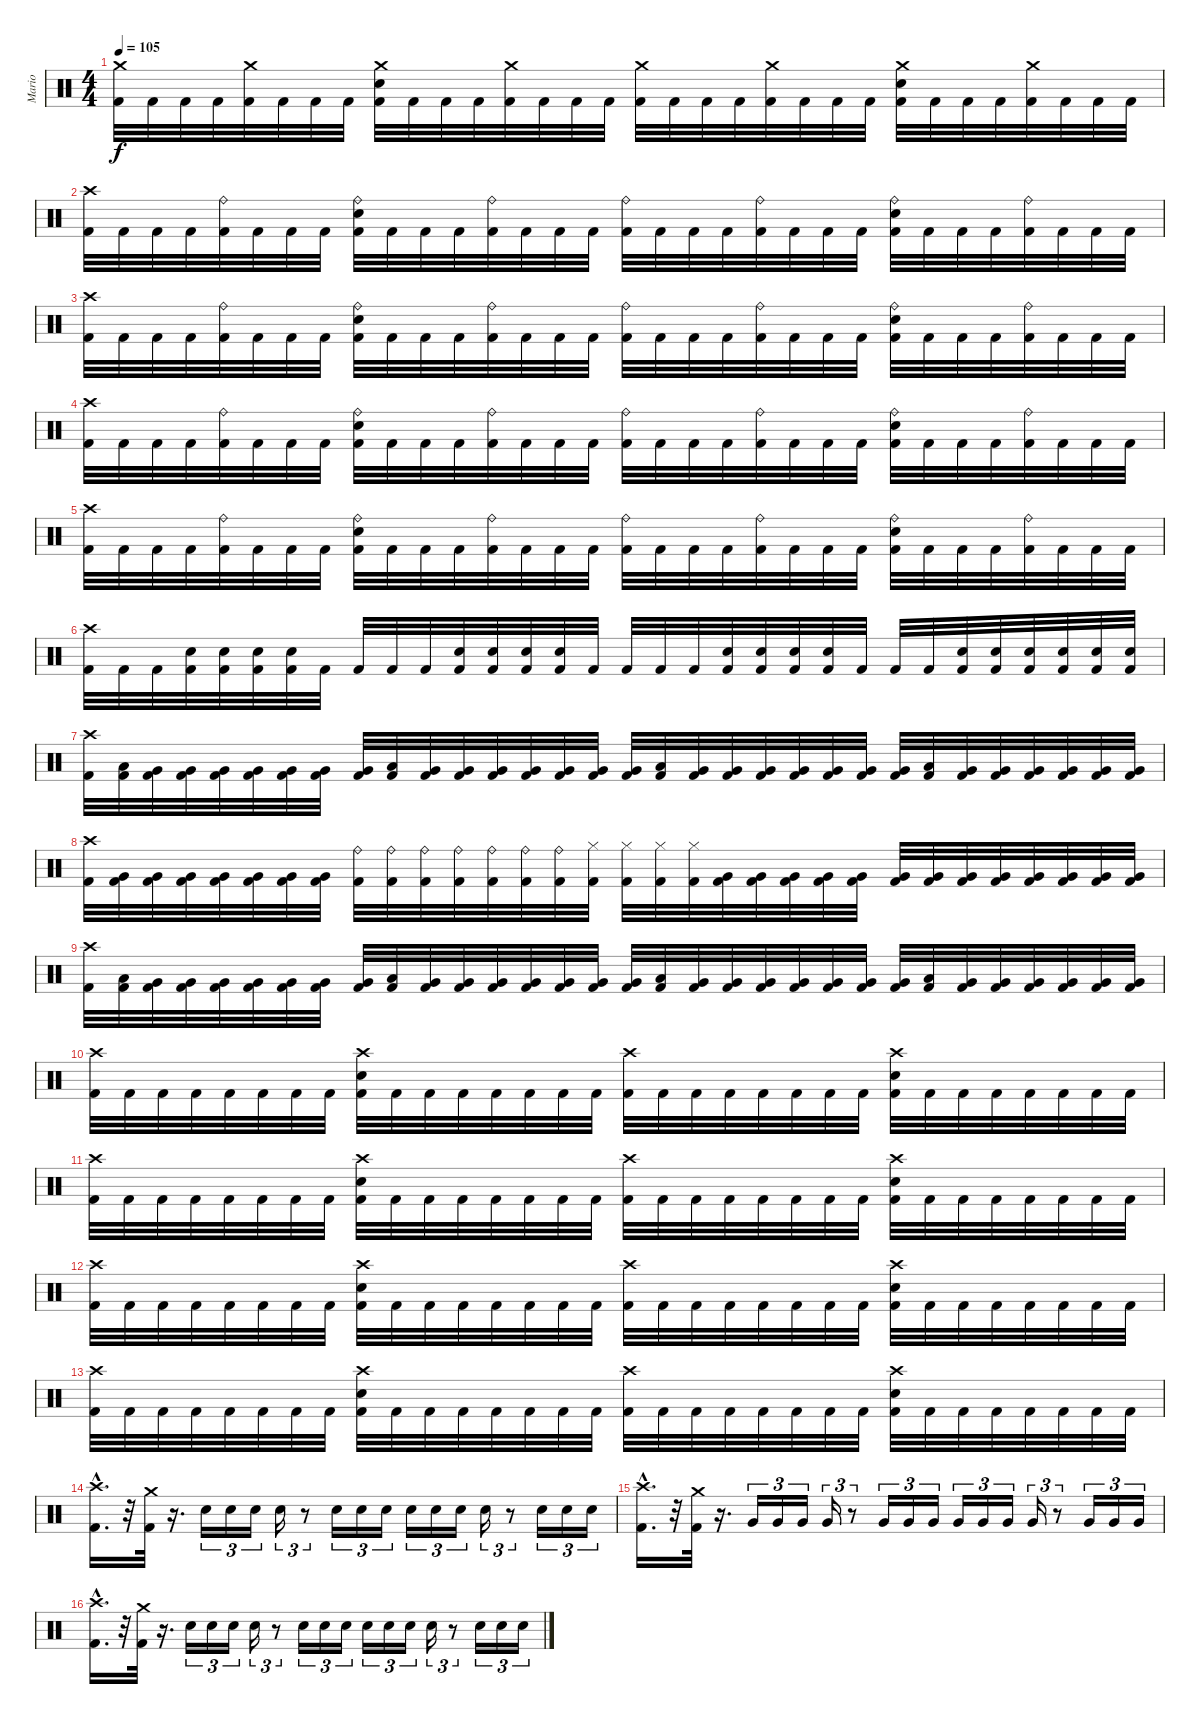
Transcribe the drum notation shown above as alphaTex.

\track ("Mario" "Mario") {instrument percussion}
\staff {score}
\articulation defaults
\ts (4 4)
\tempo 105
\clef neutral
\ks c
("Crash medium (hit)" "Kick (hit) 2").32{dy f} "Kick (hit) 2".32 "Kick (hit) 2".32 "Kick (hit) 2".32 ("Crash medium (hit)" "Kick (hit) 2").32 "Kick (hit) 2".32 "Kick (hit) 2".32 "Kick (hit) 2".32 ("Crash medium (hit)" "Snare (hit) 2" "Kick (hit) 2").32 "Kick (hit) 2".32 "Kick (hit) 2".32 "Kick (hit) 2".32 ("Crash medium (hit)" "Kick (hit) 2").32 "Kick (hit) 2".32 "Kick (hit) 2".32 "Kick (hit) 2".32 ("Crash medium (hit)" "Kick (hit) 2").32 "Kick (hit) 2".32 "Kick (hit) 2".32 "Kick (hit) 2".32 ("Crash medium (hit)" "Kick (hit) 2").32 "Kick (hit) 2".32 "Kick (hit) 2".32 "Kick (hit) 2".32 ("Crash medium (hit)" "Snare (hit) 2" "Kick (hit) 2").32 "Kick (hit) 2".32 "Kick (hit) 2".32 "Kick (hit) 2".32 ("Crash medium (hit)" "Kick (hit) 2").32 "Kick (hit) 2".32 "Kick (hit) 2".32 "Kick (hit) 2".32 |
("Crash high (hit)" "Kick (hit) 2").32 "Kick (hit) 2".32 "Kick (hit) 2".32 "Kick (hit) 2".32 ("Ride (bell)" "Kick (hit) 2").32 "Kick (hit) 2".32 "Kick (hit) 2".32 "Kick (hit) 2".32 ("Ride (bell)" "Snare (hit) 2" "Kick (hit) 2").32 "Kick (hit) 2".32 "Kick (hit) 2".32 "Kick (hit) 2".32 ("Ride (bell)" "Kick (hit) 2").32 "Kick (hit) 2".32 "Kick (hit) 2".32 "Kick (hit) 2".32 ("Ride (bell)" "Kick (hit) 2").32 "Kick (hit) 2".32 "Kick (hit) 2".32 "Kick (hit) 2".32 ("Ride (bell)" "Kick (hit) 2").32 "Kick (hit) 2".32 "Kick (hit) 2".32 "Kick (hit) 2".32 ("Ride (bell)" "Snare (hit) 2" "Kick (hit) 2").32 "Kick (hit) 2".32 "Kick (hit) 2".32 "Kick (hit) 2".32 ("Ride (bell)" "Kick (hit) 2").32 "Kick (hit) 2".32 "Kick (hit) 2".32 "Kick (hit) 2".32 |
("Crash high (hit)" "Kick (hit) 2").32 "Kick (hit) 2".32 "Kick (hit) 2".32 "Kick (hit) 2".32 ("Ride (bell)" "Kick (hit) 2").32 "Kick (hit) 2".32 "Kick (hit) 2".32 "Kick (hit) 2".32 ("Ride (bell)" "Snare (hit) 2" "Kick (hit) 2").32 "Kick (hit) 2".32 "Kick (hit) 2".32 "Kick (hit) 2".32 ("Ride (bell)" "Kick (hit) 2").32 "Kick (hit) 2".32 "Kick (hit) 2".32 "Kick (hit) 2".32 ("Ride (bell)" "Kick (hit) 2").32 "Kick (hit) 2".32 "Kick (hit) 2".32 "Kick (hit) 2".32 ("Ride (bell)" "Kick (hit) 2").32 "Kick (hit) 2".32 "Kick (hit) 2".32 "Kick (hit) 2".32 ("Ride (bell)" "Snare (hit) 2" "Kick (hit) 2").32 "Kick (hit) 2".32 "Kick (hit) 2".32 "Kick (hit) 2".32 ("Ride (bell)" "Kick (hit) 2").32 "Kick (hit) 2".32 "Kick (hit) 2".32 "Kick (hit) 2".32 |
("Crash high (hit)" "Kick (hit) 2").32 "Kick (hit) 2".32 "Kick (hit) 2".32 "Kick (hit) 2".32 ("Ride (bell)" "Kick (hit) 2").32 "Kick (hit) 2".32 "Kick (hit) 2".32 "Kick (hit) 2".32 ("Ride (bell)" "Snare (hit) 2" "Kick (hit) 2").32 "Kick (hit) 2".32 "Kick (hit) 2".32 "Kick (hit) 2".32 ("Ride (bell)" "Kick (hit) 2").32 "Kick (hit) 2".32 "Kick (hit) 2".32 "Kick (hit) 2".32 ("Ride (bell)" "Kick (hit) 2").32 "Kick (hit) 2".32 "Kick (hit) 2".32 "Kick (hit) 2".32 ("Ride (bell)" "Kick (hit) 2").32 "Kick (hit) 2".32 "Kick (hit) 2".32 "Kick (hit) 2".32 ("Ride (bell)" "Snare (hit) 2" "Kick (hit) 2").32 "Kick (hit) 2".32 "Kick (hit) 2".32 "Kick (hit) 2".32 ("Ride (bell)" "Kick (hit) 2").32 "Kick (hit) 2".32 "Kick (hit) 2".32 "Kick (hit) 2".32 |
("Crash high (hit)" "Kick (hit) 2").32 "Kick (hit) 2".32 "Kick (hit) 2".32 "Kick (hit) 2".32 ("Ride (bell)" "Kick (hit) 2").32 "Kick (hit) 2".32 "Kick (hit) 2".32 "Kick (hit) 2".32 ("Ride (bell)" "Snare (hit) 2" "Kick (hit) 2").32 "Kick (hit) 2".32 "Kick (hit) 2".32 "Kick (hit) 2".32 ("Ride (bell)" "Kick (hit) 2").32 "Kick (hit) 2".32 "Kick (hit) 2".32 "Kick (hit) 2".32 ("Ride (bell)" "Kick (hit) 2").32 "Kick (hit) 2".32 "Kick (hit) 2".32 "Kick (hit) 2".32 ("Ride (bell)" "Kick (hit) 2").32 "Kick (hit) 2".32 "Kick (hit) 2".32 "Kick (hit) 2".32 ("Ride (bell)" "Snare (hit) 2" "Kick (hit) 2").32 "Kick (hit) 2".32 "Kick (hit) 2".32 "Kick (hit) 2".32 ("Ride (bell)" "Kick (hit) 2").32 "Kick (hit) 2".32 "Kick (hit) 2".32 "Kick (hit) 2".32 |
("Crash high (hit)" "Kick (hit) 2").32 "Kick (hit) 2".32 "Kick (hit) 2".32 ("Snare (hit) 2" "Kick (hit) 2").32 ("Snare (hit) 2" "Kick (hit) 2").32 ("Snare (hit) 2" "Kick (hit) 2").32 ("Snare (hit) 2" "Kick (hit) 2").32 "Kick (hit) 2".32 "Kick (hit) 2".32 "Kick (hit) 2".32 "Kick (hit) 2".32 ("Snare (hit) 2" "Kick (hit) 2").32 ("Snare (hit) 2" "Kick (hit) 2").32 ("Snare (hit) 2" "Kick (hit) 2").32 ("Snare (hit) 2" "Kick (hit) 2").32 "Kick (hit) 2".32 "Kick (hit) 2".32 "Kick (hit) 2".32 "Kick (hit) 2".32 ("Snare (hit) 2" "Kick (hit) 2").32 ("Snare (hit) 2" "Kick (hit) 2").32 ("Snare (hit) 2" "Kick (hit) 2").32 ("Snare (hit) 2" "Kick (hit) 2").32 "Kick (hit) 2".32 "Kick (hit) 2".32 "Kick (hit) 2".32 ("Snare (hit) 2" "Kick (hit) 2").32 ("Snare (hit) 2" "Kick (hit) 2").32 ("Snare (hit) 2" "Kick (hit) 2").32 ("Snare (hit) 2" "Kick (hit) 2").32 ("Snare (hit) 2" "Kick (hit) 2").32 ("Snare (hit) 2" "Kick (hit) 2").32 |
("Crash high (hit)" "Kick (hit) 2").32 ("Low Tom (hit)" "Kick (hit) 2").32 ("Very Low Tom (hit)" "Kick (hit) 2").32 ("Very Low Tom (hit)" "Kick (hit) 2").32 ("Very Low Tom (hit)" "Kick (hit) 2").32 ("Very Low Tom (hit)" "Kick (hit) 2").32 ("Very Low Tom (hit)" "Kick (hit) 2").32 ("Very Low Tom (hit)" "Kick (hit) 2").32 ("Very Low Tom (hit)" "Kick (hit) 2").32 ("Low Tom (hit)" "Kick (hit) 2").32 ("Very Low Tom (hit)" "Kick (hit) 2").32 ("Very Low Tom (hit)" "Kick (hit) 2").32 ("Very Low Tom (hit)" "Kick (hit) 2").32 ("Very Low Tom (hit)" "Kick (hit) 2").32 ("Very Low Tom (hit)" "Kick (hit) 2").32 ("Very Low Tom (hit)" "Kick (hit) 2").32 ("Very Low Tom (hit)" "Kick (hit) 2").32 ("Low Tom (hit)" "Kick (hit) 2").32 ("Very Low Tom (hit)" "Kick (hit) 2").32 ("Very Low Tom (hit)" "Kick (hit) 2").32 ("Very Low Tom (hit)" "Kick (hit) 2").32 ("Very Low Tom (hit)" "Kick (hit) 2").32 ("Very Low Tom (hit)" "Kick (hit) 2").32 ("Very Low Tom (hit)" "Kick (hit) 2").32 ("Very Low Tom (hit)" "Kick (hit) 2").32 ("Low Tom (hit)" "Kick (hit) 2").32 ("Very Low Tom (hit)" "Kick (hit) 2").32 ("Very Low Tom (hit)" "Kick (hit) 2").32 ("Very Low Tom (hit)" "Kick (hit) 2").32 ("Very Low Tom (hit)" "Kick (hit) 2").32 ("Very Low Tom (hit)" "Kick (hit) 2").32 ("Very Low Tom (hit)" "Kick (hit) 2").32 |
("Crash high (hit)" "Kick (hit) 2").32 ("Very Low Tom (hit)" "Kick (hit) 2").32 ("Very Low Tom (hit)" "Kick (hit) 2").32 ("Very Low Tom (hit)" "Kick (hit) 2").32 ("Very Low Tom (hit)" "Kick (hit) 2").32 ("Very Low Tom (hit)" "Kick (hit) 2").32 ("Very Low Tom (hit)" "Kick (hit) 2").32 ("Very Low Tom (hit)" "Kick (hit) 2").32 ("Ride (bell)" "Kick (hit) 2").32 ("Ride (bell)" "Kick (hit) 2").32 ("Ride (bell)" "Kick (hit) 2").32 ("Ride (bell)" "Kick (hit) 2").32 ("Ride (bell)" "Kick (hit) 2").32 ("Ride (bell)" "Kick (hit) 2").32 ("Ride (bell)" "Kick (hit) 2").32 ("Hi-Hat (closed)" "Kick (hit) 2").32 ("Hi-Hat (closed)" "Kick (hit) 2").32 ("Hi-Hat (closed)" "Kick (hit) 2").32 ("Hi-Hat (closed)" "Kick (hit) 2").32 ("Very Low Tom (hit)" "Kick (hit) 2").32 ("Very Low Tom (hit)" "Kick (hit) 2").32 ("Very Low Tom (hit)" "Kick (hit) 2").32 ("Very Low Tom (hit)" "Kick (hit) 2").32 ("Very Low Tom (hit)" "Kick (hit) 2").32 ("Very Low Tom (hit)" "Kick (hit) 2").32 ("Very Low Tom (hit)" "Kick (hit) 2").32 ("Very Low Tom (hit)" "Kick (hit) 2").32 ("Very Low Tom (hit)" "Kick (hit) 2").32 ("Very Low Tom (hit)" "Kick (hit) 2").32 ("Very Low Tom (hit)" "Kick (hit) 2").32 ("Very Low Tom (hit)" "Kick (hit) 2").32 ("Very Low Tom (hit)" "Kick (hit) 2").32 |
("Crash high (hit)" "Kick (hit) 2").32 ("Low Tom (hit)" "Kick (hit) 2").32 ("Very Low Tom (hit)" "Kick (hit) 2").32 ("Very Low Tom (hit)" "Kick (hit) 2").32 ("Very Low Tom (hit)" "Kick (hit) 2").32 ("Very Low Tom (hit)" "Kick (hit) 2").32 ("Very Low Tom (hit)" "Kick (hit) 2").32 ("Very Low Tom (hit)" "Kick (hit) 2").32 ("Very Low Tom (hit)" "Kick (hit) 2").32 ("Low Tom (hit)" "Kick (hit) 2").32 ("Very Low Tom (hit)" "Kick (hit) 2").32 ("Very Low Tom (hit)" "Kick (hit) 2").32 ("Very Low Tom (hit)" "Kick (hit) 2").32 ("Very Low Tom (hit)" "Kick (hit) 2").32 ("Very Low Tom (hit)" "Kick (hit) 2").32 ("Very Low Tom (hit)" "Kick (hit) 2").32 ("Very Low Tom (hit)" "Kick (hit) 2").32 ("Low Tom (hit)" "Kick (hit) 2").32 ("Very Low Tom (hit)" "Kick (hit) 2").32 ("Very Low Tom (hit)" "Kick (hit) 2").32 ("Very Low Tom (hit)" "Kick (hit) 2").32 ("Very Low Tom (hit)" "Kick (hit) 2").32 ("Very Low Tom (hit)" "Kick (hit) 2").32 ("Very Low Tom (hit)" "Kick (hit) 2").32 ("Very Low Tom (hit)" "Kick (hit) 2").32 ("Low Tom (hit)" "Kick (hit) 2").32 ("Very Low Tom (hit)" "Kick (hit) 2").32 ("Very Low Tom (hit)" "Kick (hit) 2").32 ("Very Low Tom (hit)" "Kick (hit) 2").32 ("Very Low Tom (hit)" "Kick (hit) 2").32 ("Very Low Tom (hit)" "Kick (hit) 2").32 ("Very Low Tom (hit)" "Kick (hit) 2").32 |
("Crash high (hit)" "Kick (hit) 2").32 "Kick (hit) 2".32 "Kick (hit) 2".32 "Kick (hit) 2".32 "Kick (hit) 2".32 "Kick (hit) 2".32 "Kick (hit) 2".32 "Kick (hit) 2".32 ("Crash high (hit)" "Snare (hit) 2" "Kick (hit) 2").32 "Kick (hit) 2".32 "Kick (hit) 2".32 "Kick (hit) 2".32 "Kick (hit) 2".32 "Kick (hit) 2".32 "Kick (hit) 2".32 "Kick (hit) 2".32 ("Crash high (hit)" "Kick (hit) 2").32 "Kick (hit) 2".32 "Kick (hit) 2".32 "Kick (hit) 2".32 "Kick (hit) 2".32 "Kick (hit) 2".32 "Kick (hit) 2".32 "Kick (hit) 2".32 ("Crash high (hit)" "Snare (hit) 2" "Kick (hit) 2").32 "Kick (hit) 2".32 "Kick (hit) 2".32 "Kick (hit) 2".32 "Kick (hit) 2".32 "Kick (hit) 2".32 "Kick (hit) 2".32 "Kick (hit) 2".32 |
("Crash high (hit)" "Kick (hit) 2").32 "Kick (hit) 2".32 "Kick (hit) 2".32 "Kick (hit) 2".32 "Kick (hit) 2".32 "Kick (hit) 2".32 "Kick (hit) 2".32 "Kick (hit) 2".32 ("Crash high (hit)" "Snare (hit) 2" "Kick (hit) 2").32 "Kick (hit) 2".32 "Kick (hit) 2".32 "Kick (hit) 2".32 "Kick (hit) 2".32 "Kick (hit) 2".32 "Kick (hit) 2".32 "Kick (hit) 2".32 ("Crash high (hit)" "Kick (hit) 2").32 "Kick (hit) 2".32 "Kick (hit) 2".32 "Kick (hit) 2".32 "Kick (hit) 2".32 "Kick (hit) 2".32 "Kick (hit) 2".32 "Kick (hit) 2".32 ("Crash high (hit)" "Snare (hit) 2" "Kick (hit) 2").32 "Kick (hit) 2".32 "Kick (hit) 2".32 "Kick (hit) 2".32 "Kick (hit) 2".32 "Kick (hit) 2".32 "Kick (hit) 2".32 "Kick (hit) 2".32 |
("Crash high (hit)" "Kick (hit) 2").32 "Kick (hit) 2".32 "Kick (hit) 2".32 "Kick (hit) 2".32 "Kick (hit) 2".32 "Kick (hit) 2".32 "Kick (hit) 2".32 "Kick (hit) 2".32 ("Crash high (hit)" "Snare (hit) 2" "Kick (hit) 2").32 "Kick (hit) 2".32 "Kick (hit) 2".32 "Kick (hit) 2".32 "Kick (hit) 2".32 "Kick (hit) 2".32 "Kick (hit) 2".32 "Kick (hit) 2".32 ("Crash high (hit)" "Kick (hit) 2").32 "Kick (hit) 2".32 "Kick (hit) 2".32 "Kick (hit) 2".32 "Kick (hit) 2".32 "Kick (hit) 2".32 "Kick (hit) 2".32 "Kick (hit) 2".32 ("Crash high (hit)" "Snare (hit) 2" "Kick (hit) 2").32 "Kick (hit) 2".32 "Kick (hit) 2".32 "Kick (hit) 2".32 "Kick (hit) 2".32 "Kick (hit) 2".32 "Kick (hit) 2".32 "Kick (hit) 2".32 |
("Crash high (hit)" "Kick (hit) 2").32 "Kick (hit) 2".32 "Kick (hit) 2".32 "Kick (hit) 2".32 "Kick (hit) 2".32 "Kick (hit) 2".32 "Kick (hit) 2".32 "Kick (hit) 2".32 ("Crash high (hit)" "Snare (hit) 2" "Kick (hit) 2").32 "Kick (hit) 2".32 "Kick (hit) 2".32 "Kick (hit) 2".32 "Kick (hit) 2".32 "Kick (hit) 2".32 "Kick (hit) 2".32 "Kick (hit) 2".32 ("Crash high (hit)" "Kick (hit) 2").32 "Kick (hit) 2".32 "Kick (hit) 2".32 "Kick (hit) 2".32 "Kick (hit) 2".32 "Kick (hit) 2".32 "Kick (hit) 2".32 "Kick (hit) 2".32 ("Crash high (hit)" "Snare (hit) 2" "Kick (hit) 2").32 "Kick (hit) 2".32 "Kick (hit) 2".32 "Kick (hit) 2".32 "Kick (hit) 2".32 "Kick (hit) 2".32 "Kick (hit) 2".32 "Kick (hit) 2".32 |
("Crash high (hit)"{hac} "Kick (hit) 2"{hac}).16{d} r.32 ("Crash medium (hit)" "Kick (hit) 2").32 r.16{d} "Snare (hit) 2".16{tu (3 2)} "Snare (hit) 2".16{tu (3 2)} "Snare (hit) 2".16{tu (3 2)} "Snare (hit) 2".16{tu (3 2)} r.8{tu (3 2)} "Snare (hit) 2".16{tu (3 2)} "Snare (hit) 2".16{tu (3 2)} "Snare (hit) 2".16{tu (3 2)} "Snare (hit) 2".16{tu (3 2)} "Snare (hit) 2".16{tu (3 2)} "Snare (hit) 2".16{tu (3 2)} "Snare (hit) 2".16{tu (3 2)} r.8{tu (3 2)} "Snare (hit) 2".16{tu (3 2)} "Snare (hit) 2".16{tu (3 2)} "Snare (hit) 2".16{tu (3 2)} |
("Crash high (hit)"{hac} "Kick (hit) 2"{hac}).16{d} r.32 ("Crash medium (hit)" "Kick (hit) 2").32 r.16{d} "Very Low Tom (hit)".16{tu (3 2)} "Very Low Tom (hit)".16{tu (3 2)} "Very Low Tom (hit)".16{tu (3 2)} "Very Low Tom (hit)".16{tu (3 2)} r.8{tu (3 2)} "Very Low Tom (hit)".16{tu (3 2)} "Very Low Tom (hit)".16{tu (3 2)} "Very Low Tom (hit)".16{tu (3 2)} "Very Low Tom (hit)".16{tu (3 2)} "Very Low Tom (hit)".16{tu (3 2)} "Very Low Tom (hit)".16{tu (3 2)} "Very Low Tom (hit)".16{tu (3 2)} r.8{tu (3 2)} "Very Low Tom (hit)".16{tu (3 2)} "Very Low Tom (hit)".16{tu (3 2)} "Very Low Tom (hit)".16{tu (3 2)} |
("Crash high (hit)"{hac} "Kick (hit) 2"{hac}).16{d} r.32 ("Crash medium (hit)" "Kick (hit) 2").32 r.16{d} "Snare (hit) 2".16{tu (3 2)} "Snare (hit) 2".16{tu (3 2)} "Snare (hit) 2".16{tu (3 2)} "Snare (hit) 2".16{tu (3 2)} r.8{tu (3 2)} "Snare (hit) 2".16{tu (3 2)} "Snare (hit) 2".16{tu (3 2)} "Snare (hit) 2".16{tu (3 2)} "Snare (hit) 2".16{tu (3 2)} "Snare (hit) 2".16{tu (3 2)} "Snare (hit) 2".16{tu (3 2)} "Snare (hit) 2".16{tu (3 2)} r.8{tu (3 2)} "Snare (hit) 2".16{tu (3 2)} "Snare (hit) 2".16{tu (3 2)} "Snare (hit) 2".16{tu (3 2)}
